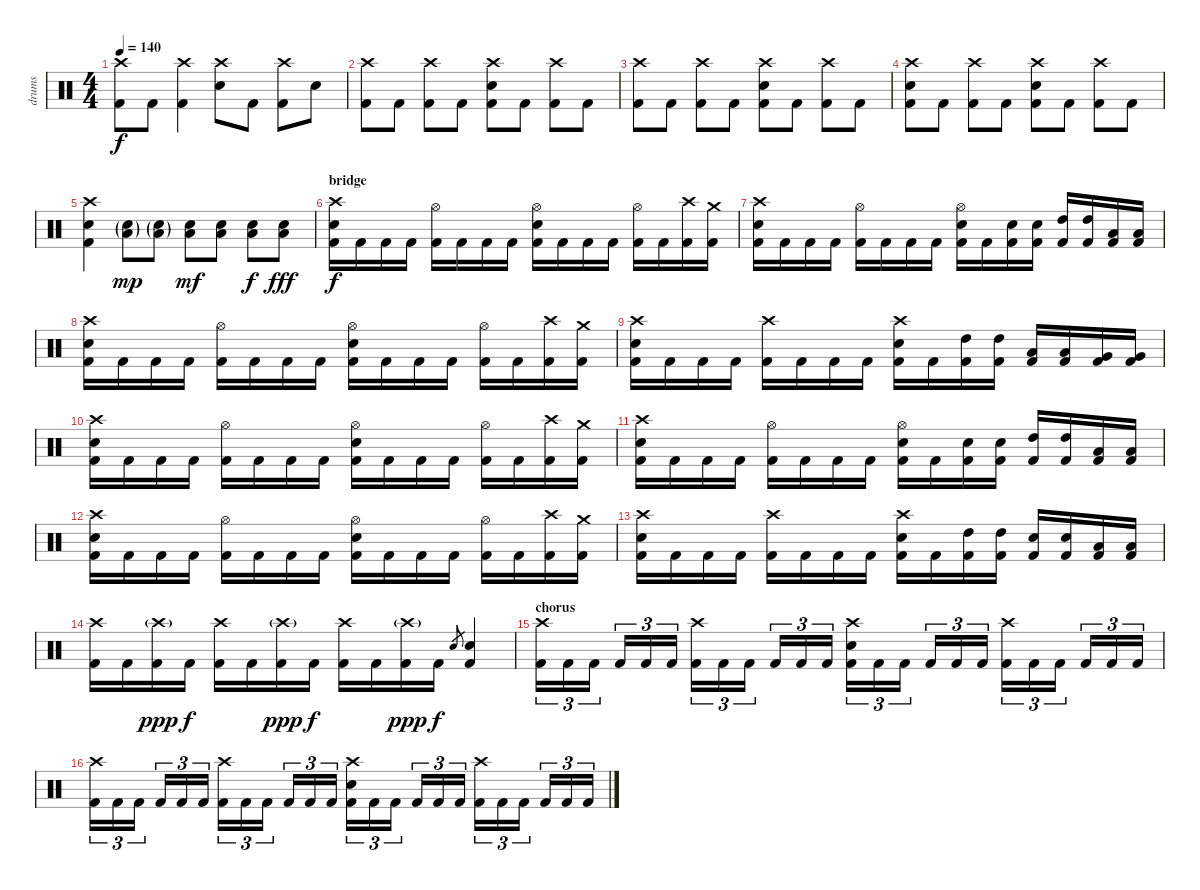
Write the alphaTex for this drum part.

\track ("drums" "drums") {instrument percussion}
\staff {score}
\articulation defaults
\ts (4 4)
\tempo 140
\clef neutral
\ks c
("Crash high (hit)" "Kick (hit) 2").8{dy f} "Kick (hit) 2".8 ("Crash high (hit)" "Kick (hit) 2").4 ("Crash high (hit)" "Electric Snare (hit)").8 "Kick (hit) 2".8 ("Crash high (hit)" "Kick (hit) 2").8 "Electric Snare (hit)".8 |
("Crash high (hit)" "Kick (hit) 2").8 "Kick (hit) 2".8 ("Crash high (hit)" "Kick (hit) 2").8 "Kick (hit) 2".8 ("Crash high (hit)" "Electric Snare (hit)" "Kick (hit) 2").8 "Kick (hit) 2".8 ("Crash high (hit)" "Kick (hit) 2").8 "Kick (hit) 2".8 |
("Crash high (hit)" "Kick (hit) 2").8 "Kick (hit) 2".8 ("Crash high (hit)" "Kick (hit) 2").8 "Kick (hit) 2".8 ("Crash high (hit)" "Electric Snare (hit)" "Kick (hit) 2").8 "Kick (hit) 2".8 ("Crash high (hit)" "Kick (hit) 2").8 "Kick (hit) 2".8 |
("Crash high (hit)" "Electric Snare (hit)" "Kick (hit) 2").8 "Kick (hit) 2".8 ("Crash high (hit)" "Kick (hit) 2").8 "Kick (hit) 2".8 ("Crash high (hit)" "Electric Snare (hit)" "Kick (hit) 2").8 "Kick (hit) 2".8 ("Crash high (hit)" "Kick (hit) 2").8 "Kick (hit) 2".8 |
("Crash high (hit)" "Electric Snare (hit)" "Kick (hit) 2").4 ("Electric Snare (hit)"{g} "Low Floor Tom (hit)"{g}).8{dy mp} ("Electric Snare (hit)"{g} "Low Floor Tom (hit)"{g}).8 ("Electric Snare (hit)" "Low Floor Tom (hit)").8{dy mf} ("Electric Snare (hit)" "Low Floor Tom (hit)").8 ("Electric Snare (hit)" "Low Floor Tom (hit)").8{dy f} ("Electric Snare (hit)" "Low Floor Tom (hit)").8{dy fff} |
\section ("" "bridge")
("Crash high (hit)" "Electric Snare (hit)" "Kick (hit) 2").16{dy f} "Kick (hit) 2".16 "Kick (hit) 2".16 "Kick (hit) 2".16 ("Hi-Hat (open)" "Kick (hit) 2").16 "Kick (hit) 2".16 "Kick (hit) 2".16 "Kick (hit) 2".16 ("Hi-Hat (open)" "Electric Snare (hit)" "Kick (hit) 2").16 "Kick (hit) 2".16 "Kick (hit) 2".16 "Kick (hit) 2".16 ("Hi-Hat (open)" "Kick (hit) 2").16 "Kick (hit) 2".16 ("Crash high (hit)" "Kick (hit) 2").16 ("Crash medium (hit)" "Kick (hit) 2").16 |
("Crash high (hit)" "Electric Snare (hit)" "Kick (hit) 2").16 "Kick (hit) 2".16 "Kick (hit) 2".16 "Kick (hit) 2".16 ("Hi-Hat (open)" "Kick (hit) 2").16 "Kick (hit) 2".16 "Kick (hit) 2".16 "Kick (hit) 2".16 ("Hi-Hat (open)" "Electric Snare (hit)" "Kick (hit) 2").16 "Kick (hit) 2".16 ("Electric Snare (hit)" "Kick (hit) 2").16 ("Electric Snare (hit)" "Kick (hit) 2").16 ("High Tom (hit)" "Kick (hit) 2").16 ("High Tom (hit)" "Kick (hit) 2").16 ("Low Tom (hit)" "Kick (hit) 2").16 ("Low Tom (hit)" "Kick (hit) 2").16 |
("Crash high (hit)" "Electric Snare (hit)" "Kick (hit) 2").16 "Kick (hit) 2".16 "Kick (hit) 2".16 "Kick (hit) 2".16 ("Hi-Hat (open)" "Kick (hit) 2").16 "Kick (hit) 2".16 "Kick (hit) 2".16 "Kick (hit) 2".16 ("Hi-Hat (open)" "Electric Snare (hit)" "Kick (hit) 2").16 "Kick (hit) 2".16 "Kick (hit) 2".16 "Kick (hit) 2".16 ("Hi-Hat (open)" "Kick (hit) 2").16 "Kick (hit) 2".16 ("Crash high (hit)" "Kick (hit) 2").16 ("Crash medium (hit)" "Kick (hit) 2").16 |
("Crash high (hit)" "Electric Snare (hit)" "Kick (hit) 2").16 "Kick (hit) 2".16 "Kick (hit) 2".16 "Kick (hit) 2".16 ("Crash high (hit)" "Kick (hit) 2").16 "Kick (hit) 2".16 "Kick (hit) 2".16 "Kick (hit) 2".16 ("Crash high (hit)" "Electric Snare (hit)" "Kick (hit) 2").16 "Kick (hit) 2".16 ("High Tom (hit)" "Kick (hit) 2").16 ("High Tom (hit)" "Kick (hit) 2").16 ("Low Tom (hit)" "Kick (hit) 2").16 ("Low Tom (hit)" "Kick (hit) 2").16 ("Very Low Tom (hit)" "Kick (hit) 2").16 ("Very Low Tom (hit)" "Kick (hit) 2").16 |
("Crash high (hit)" "Electric Snare (hit)" "Kick (hit) 2").16 "Kick (hit) 2".16 "Kick (hit) 2".16 "Kick (hit) 2".16 ("Hi-Hat (open)" "Kick (hit) 2").16 "Kick (hit) 2".16 "Kick (hit) 2".16 "Kick (hit) 2".16 ("Hi-Hat (open)" "Electric Snare (hit)" "Kick (hit) 2").16 "Kick (hit) 2".16 "Kick (hit) 2".16 "Kick (hit) 2".16 ("Hi-Hat (open)" "Kick (hit) 2").16 "Kick (hit) 2".16 ("Crash high (hit)" "Kick (hit) 2").16 ("Crash medium (hit)" "Kick (hit) 2").16 |
("Crash high (hit)" "Electric Snare (hit)" "Kick (hit) 2").16 "Kick (hit) 2".16 "Kick (hit) 2".16 "Kick (hit) 2".16 ("Hi-Hat (open)" "Kick (hit) 2").16 "Kick (hit) 2".16 "Kick (hit) 2".16 "Kick (hit) 2".16 ("Hi-Hat (open)" "Electric Snare (hit)" "Kick (hit) 2").16 "Kick (hit) 2".16 ("Electric Snare (hit)" "Kick (hit) 2").16 ("Electric Snare (hit)" "Kick (hit) 2").16 ("High Tom (hit)" "Kick (hit) 2").16 ("High Tom (hit)" "Kick (hit) 2").16 ("Low Tom (hit)" "Kick (hit) 2").16 ("Low Tom (hit)" "Kick (hit) 2").16 |
("Crash high (hit)" "Electric Snare (hit)" "Kick (hit) 2").16 "Kick (hit) 2".16 "Kick (hit) 2".16 "Kick (hit) 2".16 ("Hi-Hat (open)" "Kick (hit) 2").16 "Kick (hit) 2".16 "Kick (hit) 2".16 "Kick (hit) 2".16 ("Hi-Hat (open)" "Electric Snare (hit)" "Kick (hit) 2").16 "Kick (hit) 2".16 "Kick (hit) 2".16 "Kick (hit) 2".16 ("Hi-Hat (open)" "Kick (hit) 2").16 "Kick (hit) 2".16 ("Crash high (hit)" "Kick (hit) 2").16 ("Crash medium (hit)" "Kick (hit) 2").16 |
("Crash high (hit)" "Electric Snare (hit)" "Kick (hit) 2").16 "Kick (hit) 2".16 "Kick (hit) 2".16 "Kick (hit) 2".16 ("Crash high (hit)" "Kick (hit) 2").16 "Kick (hit) 2".16 "Kick (hit) 2".16 "Kick (hit) 2".16 ("Crash high (hit)" "Electric Snare (hit)" "Kick (hit) 2").16 "Kick (hit) 2".16 ("High Tom (hit)" "Kick (hit) 2").16 ("High Tom (hit)" "Kick (hit) 2").16 ("Electric Snare (hit)" "Kick (hit) 2").16 ("Electric Snare (hit)" "Kick (hit) 2").16 ("Low Tom (hit)" "Kick (hit) 2").16 ("Low Tom (hit)" "Kick (hit) 2").16 |
\section ("" "")
("Crash high (hit)"{pm} "Kick (hit) 2").16 "Kick (hit) 2".16 ("Crash high (hit)"{g} "Kick (hit) 2").16{dy ppp} "Kick (hit) 2".16{dy f} ("Crash high (hit)"{pm} "Kick (hit) 2").16 "Kick (hit) 2".16 ("Crash high (hit)"{g} "Kick (hit) 2").16{dy ppp} "Kick (hit) 2".16{dy f} ("Crash high (hit)"{pm} "Kick (hit) 2").16 "Kick (hit) 2".16 ("Crash high (hit)"{g} "Kick (hit) 2").16{dy ppp} "Kick (hit) 2".16{dy f} "Electric Snare (hit)".8{gr} ("Electric Snare (hit)" "Kick (hit) 2").4 |
\section ("" "chorus")
("Crash high (hit)" "Kick (hit) 2").16{tu (3 2)} "Kick (hit) 2".16{tu (3 2)} "Kick (hit) 2".16{tu (3 2)} "Kick (hit) 2".16{tu (3 2)} "Kick (hit) 2".16{tu (3 2)} "Kick (hit) 2".16{tu (3 2)} ("Crash high (hit)" "Kick (hit) 2").16{tu (3 2)} "Kick (hit) 2".16{tu (3 2)} "Kick (hit) 2".16{tu (3 2)} "Kick (hit) 2".16{tu (3 2)} "Kick (hit) 2".16{tu (3 2)} "Kick (hit) 2".16{tu (3 2)} ("Crash high (hit)" "Electric Snare (hit)" "Kick (hit) 2").16{tu (3 2)} "Kick (hit) 2".16{tu (3 2)} "Kick (hit) 2".16{tu (3 2)} "Kick (hit) 2".16{tu (3 2)} "Kick (hit) 2".16{tu (3 2)} "Kick (hit) 2".16{tu (3 2)} ("Crash high (hit)" "Kick (hit) 2").16{tu (3 2)} "Kick (hit) 2".16{tu (3 2)} "Kick (hit) 2".16{tu (3 2)} "Kick (hit) 2".16{tu (3 2)} "Kick (hit) 2".16{tu (3 2)} "Kick (hit) 2".16{tu (3 2)} |
("Crash high (hit)" "Kick (hit) 2").16{tu (3 2)} "Kick (hit) 2".16{tu (3 2)} "Kick (hit) 2".16{tu (3 2)} "Kick (hit) 2".16{tu (3 2)} "Kick (hit) 2".16{tu (3 2)} "Kick (hit) 2".16{tu (3 2)} ("Crash high (hit)" "Kick (hit) 2").16{tu (3 2)} "Kick (hit) 2".16{tu (3 2)} "Kick (hit) 2".16{tu (3 2)} "Kick (hit) 2".16{tu (3 2)} "Kick (hit) 2".16{tu (3 2)} "Kick (hit) 2".16{tu (3 2)} ("Crash high (hit)" "Electric Snare (hit)" "Kick (hit) 2").16{tu (3 2)} "Kick (hit) 2".16{tu (3 2)} "Kick (hit) 2".16{tu (3 2)} "Kick (hit) 2".16{tu (3 2)} "Kick (hit) 2".16{tu (3 2)} "Kick (hit) 2".16{tu (3 2)} ("Crash high (hit)" "Kick (hit) 2").16{tu (3 2)} "Kick (hit) 2".16{tu (3 2)} "Kick (hit) 2".16{tu (3 2)} "Kick (hit) 2".16{tu (3 2)} "Kick (hit) 2".16{tu (3 2)} "Kick (hit) 2".16{tu (3 2)}
